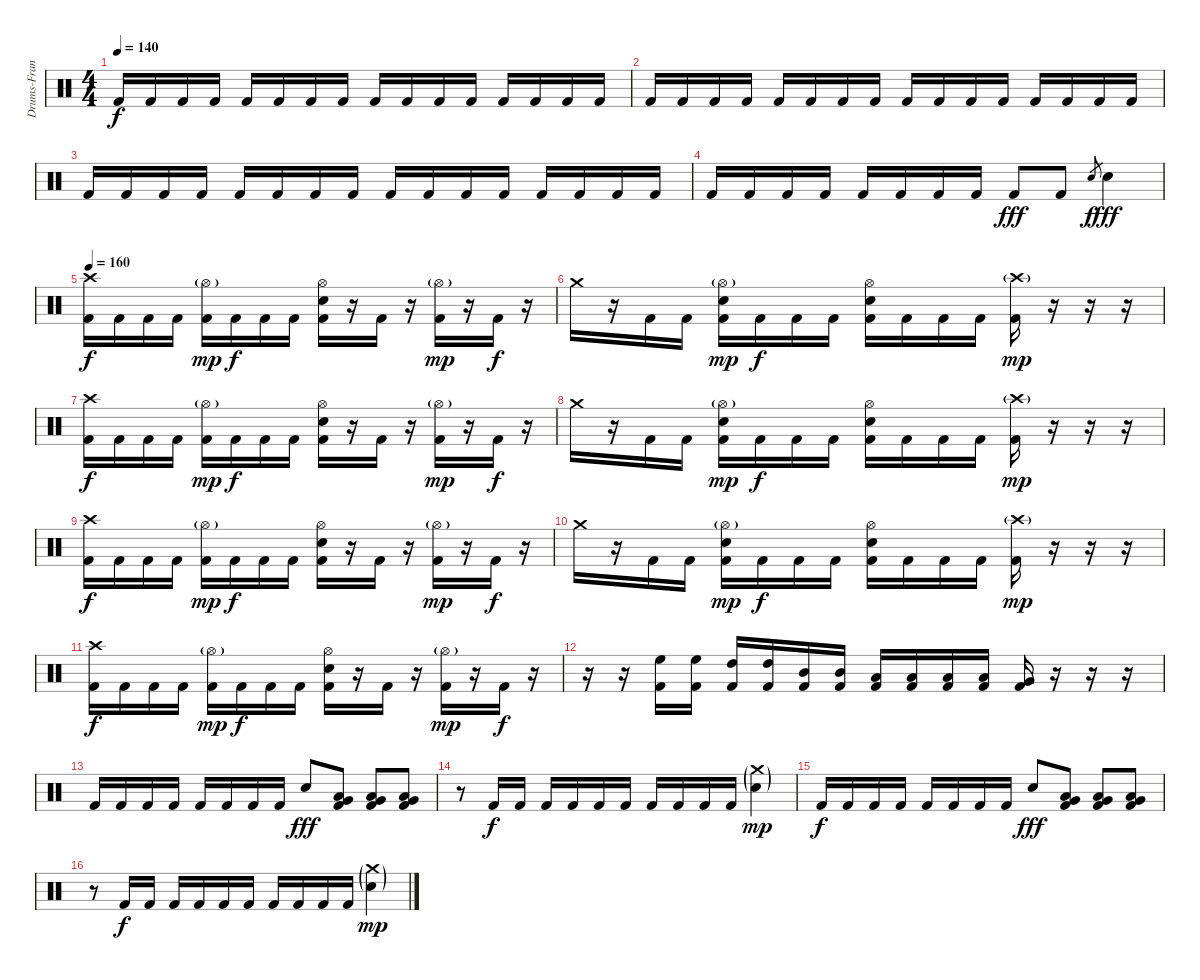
\track ("Drums-Francis Mark" "Drums-Fran") {instrument percussion}
\staff {score}
\articulation defaults
\ts (4 4)
\tempo 140
\clef neutral
\ks c "Kick (hit) 2".16{dy f} "Kick (hit) 2".16 "Kick (hit) 2".16 "Kick (hit) 2".16 "Kick (hit) 2".16 "Kick (hit) 2".16 "Kick (hit) 2".16 "Kick (hit) 2".16 "Kick (hit) 2".16 "Kick (hit) 2".16 "Kick (hit) 2".16 "Kick (hit) 2".16 "Kick (hit) 2".16 "Kick (hit) 2".16 "Kick (hit) 2".16 "Kick (hit) 2".16
|
"Kick (hit) 2".16 "Kick (hit) 2".16 "Kick (hit) 2".16 "Kick (hit) 2".16 "Kick (hit) 2".16 "Kick (hit) 2".16 "Kick (hit) 2".16 "Kick (hit) 2".16 "Kick (hit) 2".16 "Kick (hit) 2".16 "Kick (hit) 2".16 "Kick (hit) 2".16 "Kick (hit) 2".16 "Kick (hit) 2".16 "Kick (hit) 2".16 "Kick (hit) 2".16 |
"Kick (hit) 2".16 "Kick (hit) 2".16 "Kick (hit) 2".16 "Kick (hit) 2".16 "Kick (hit) 2".16 "Kick (hit) 2".16 "Kick (hit) 2".16 "Kick (hit) 2".16 "Kick (hit) 2".16 "Kick (hit) 2".16 "Kick (hit) 2".16 "Kick (hit) 2".16 "Kick (hit) 2".16 "Kick (hit) 2".16 "Kick (hit) 2".16 "Kick (hit) 2".16 |
"Kick (hit) 2".16 "Kick (hit) 2".16 "Kick (hit) 2".16 "Kick (hit) 2".16 "Kick (hit) 2".16 "Kick (hit) 2".16 "Kick (hit) 2".16 "Kick (hit) 2".16 "Kick (hit) 2".8{dy fff} "Kick (hit) 2".8 "Electric Snare (hit)".8{gr dy f} "Electric Snare (hit)".4{dy fff} |
\tempo 160
("Crash high (hit)" "Kick (hit) 2").16{dy f} "Kick (hit) 2".16 "Kick (hit) 2".16 "Kick (hit) 2".16 ("Hi-Hat (open)"{g} "Kick (hit) 2").16{dy mp} "Kick (hit) 2".16{dy f} "Kick (hit) 2".16 "Kick (hit) 2".16 ("Hi-Hat (open)" "Electric Snare (hit)" "Kick (hit) 2").16 r.16 "Kick (hit) 2".16 r.16 ("Hi-Hat (open)"{g} "Kick (hit) 2").16{dy mp} r.16 "Kick (hit) 2".16{dy f} r.16 |
"Crash medium (hit)".16 r.16 "Kick (hit) 2".16 "Kick (hit) 2".16 ("Hi-Hat (open)"{g} "Electric Snare (hit)" "Kick (hit) 2").16{dy mp} "Kick (hit) 2".16{dy f} "Kick (hit) 2".16 "Kick (hit) 2".16 ("Hi-Hat (open)" "Electric Snare (hit)" "Kick (hit) 2").16 "Kick (hit) 2".16 "Kick (hit) 2".16 "Kick (hit) 2".16 ("Crash high (hit)"{g} "Kick (hit) 2").16{dy mp} r.16 r.16 r.16 |
("Crash high (hit)" "Kick (hit) 2").16{dy f} "Kick (hit) 2".16 "Kick (hit) 2".16 "Kick (hit) 2".16 ("Hi-Hat (open)"{g} "Kick (hit) 2").16{dy mp} "Kick (hit) 2".16{dy f} "Kick (hit) 2".16 "Kick (hit) 2".16 ("Hi-Hat (open)" "Electric Snare (hit)" "Kick (hit) 2").16 r.16 "Kick (hit) 2".16 r.16 ("Hi-Hat (open)"{g} "Kick (hit) 2").16{dy mp} r.16 "Kick (hit) 2".16{dy f} r.16 |
"Crash medium (hit)".16 r.16 "Kick (hit) 2".16 "Kick (hit) 2".16 ("Hi-Hat (open)"{g} "Electric Snare (hit)" "Kick (hit) 2").16{dy mp} "Kick (hit) 2".16{dy f} "Kick (hit) 2".16 "Kick (hit) 2".16 ("Hi-Hat (open)" "Electric Snare (hit)" "Kick (hit) 2").16 "Kick (hit) 2".16 "Kick (hit) 2".16 "Kick (hit) 2".16 ("Crash high (hit)"{g} "Kick (hit) 2").16{dy mp} r.16 r.16 r.16 |
("Crash high (hit)" "Kick (hit) 2").16{dy f} "Kick (hit) 2".16 "Kick (hit) 2".16 "Kick (hit) 2".16 ("Hi-Hat (open)"{g} "Kick (hit) 2").16{dy mp} "Kick (hit) 2".16{dy f} "Kick (hit) 2".16 "Kick (hit) 2".16 ("Hi-Hat (open)" "Electric Snare (hit)" "Kick (hit) 2").16 r.16 "Kick (hit) 2".16 r.16 ("Hi-Hat (open)"{g} "Kick (hit) 2").16{dy mp} r.16 "Kick (hit) 2".16{dy f} r.16 |
"Crash medium (hit)".16 r.16 "Kick (hit) 2".16 "Kick (hit) 2".16 ("Hi-Hat (open)"{g} "Electric Snare (hit)" "Kick (hit) 2").16{dy mp} "Kick (hit) 2".16{dy f} "Kick (hit) 2".16 "Kick (hit) 2".16 ("Hi-Hat (open)" "Electric Snare (hit)" "Kick (hit) 2").16 "Kick (hit) 2".16 "Kick (hit) 2".16 "Kick (hit) 2".16 ("Crash high (hit)"{g} "Kick (hit) 2").16{dy mp} r.16 r.16 r.16 |
("Crash high (hit)" "Kick (hit) 2").16{dy f} "Kick (hit) 2".16 "Kick (hit) 2".16 "Kick (hit) 2".16 ("Hi-Hat (open)"{g} "Kick (hit) 2").16{dy mp} "Kick (hit) 2".16{dy f} "Kick (hit) 2".16 "Kick (hit) 2".16 ("Hi-Hat (open)" "Electric Snare (hit)" "Kick (hit) 2").16 r.16 "Kick (hit) 2".16 r.16 ("Hi-Hat (open)"{g} "Kick (hit) 2").16{dy mp} r.16 "Kick (hit) 2".16{dy f} r.16 |
r.16 r.16 ("High Floor Tom (hit)" "Kick (hit) 2").16 ("High Floor Tom (hit)" "Kick (hit) 2").16 ("High Tom (hit)" "Kick (hit) 2").16 ("High Tom (hit)" "Kick (hit) 2").16 ("Mid Tom (hit)" "Kick (hit) 2").16 ("Mid Tom (hit)" "Kick (hit) 2").16 ("Low Tom (hit)" "Kick (hit) 2").16 ("Low Tom (hit)" "Kick (hit) 2").16 ("Low Tom (hit)" "Kick (hit) 2").16 ("Low Tom (hit)" "Kick (hit) 2").16 ("Very Low Tom (hit)" "Kick (hit) 2").16 r.16 r.16 r.16 |
"Kick (hit) 2".16 "Kick (hit) 2".16 "Kick (hit) 2".16 "Kick (hit) 2".16 "Kick (hit) 2".16 "Kick (hit) 2".16 "Kick (hit) 2".16 "Kick (hit) 2".16 "Electric Snare (hit)".8{dy fff} ("Very Low Tom (hit)" "Low Tom (hit)" "Kick (hit) 2").8 ("Very Low Tom (hit)" "Low Tom (hit)" "Kick (hit) 2").8 ("Very Low Tom (hit)" "Low Tom (hit)" "Kick (hit) 2").8 |
r.8 "Kick (hit) 2".16{dy f} "Kick (hit) 2".16 "Kick (hit) 2".16 "Kick (hit) 2".16 "Kick (hit) 2".16 "Kick (hit) 2".16 "Kick (hit) 2".16 "Kick (hit) 2".16 "Kick (hit) 2".16 "Kick (hit) 2".16 ("Crash medium (hit)"{g} "Electric Snare (hit)"{g}).4{dy mp} |
"Kick (hit) 2".16{dy f} "Kick (hit) 2".16 "Kick (hit) 2".16 "Kick (hit) 2".16 "Kick (hit) 2".16 "Kick (hit) 2".16 "Kick (hit) 2".16 "Kick (hit) 2".16 "Electric Snare (hit)".8{dy fff} ("Very Low Tom (hit)" "Low Tom (hit)" "Kick (hit) 2").8 ("Very Low Tom (hit)" "Low Tom (hit)" "Kick (hit) 2").8 ("Very Low Tom (hit)" "Low Tom (hit)" "Kick (hit) 2").8 |
r.8 "Kick (hit) 2".16{dy f} "Kick (hit) 2".16 "Kick (hit) 2".16 "Kick (hit) 2".16 "Kick (hit) 2".16 "Kick (hit) 2".16 "Kick (hit) 2".16 "Kick (hit) 2".16 "Kick (hit) 2".16 "Kick (hit) 2".16 ("Crash medium (hit)"{g} "Electric Snare (hit)"{g}).4{dy mp}
